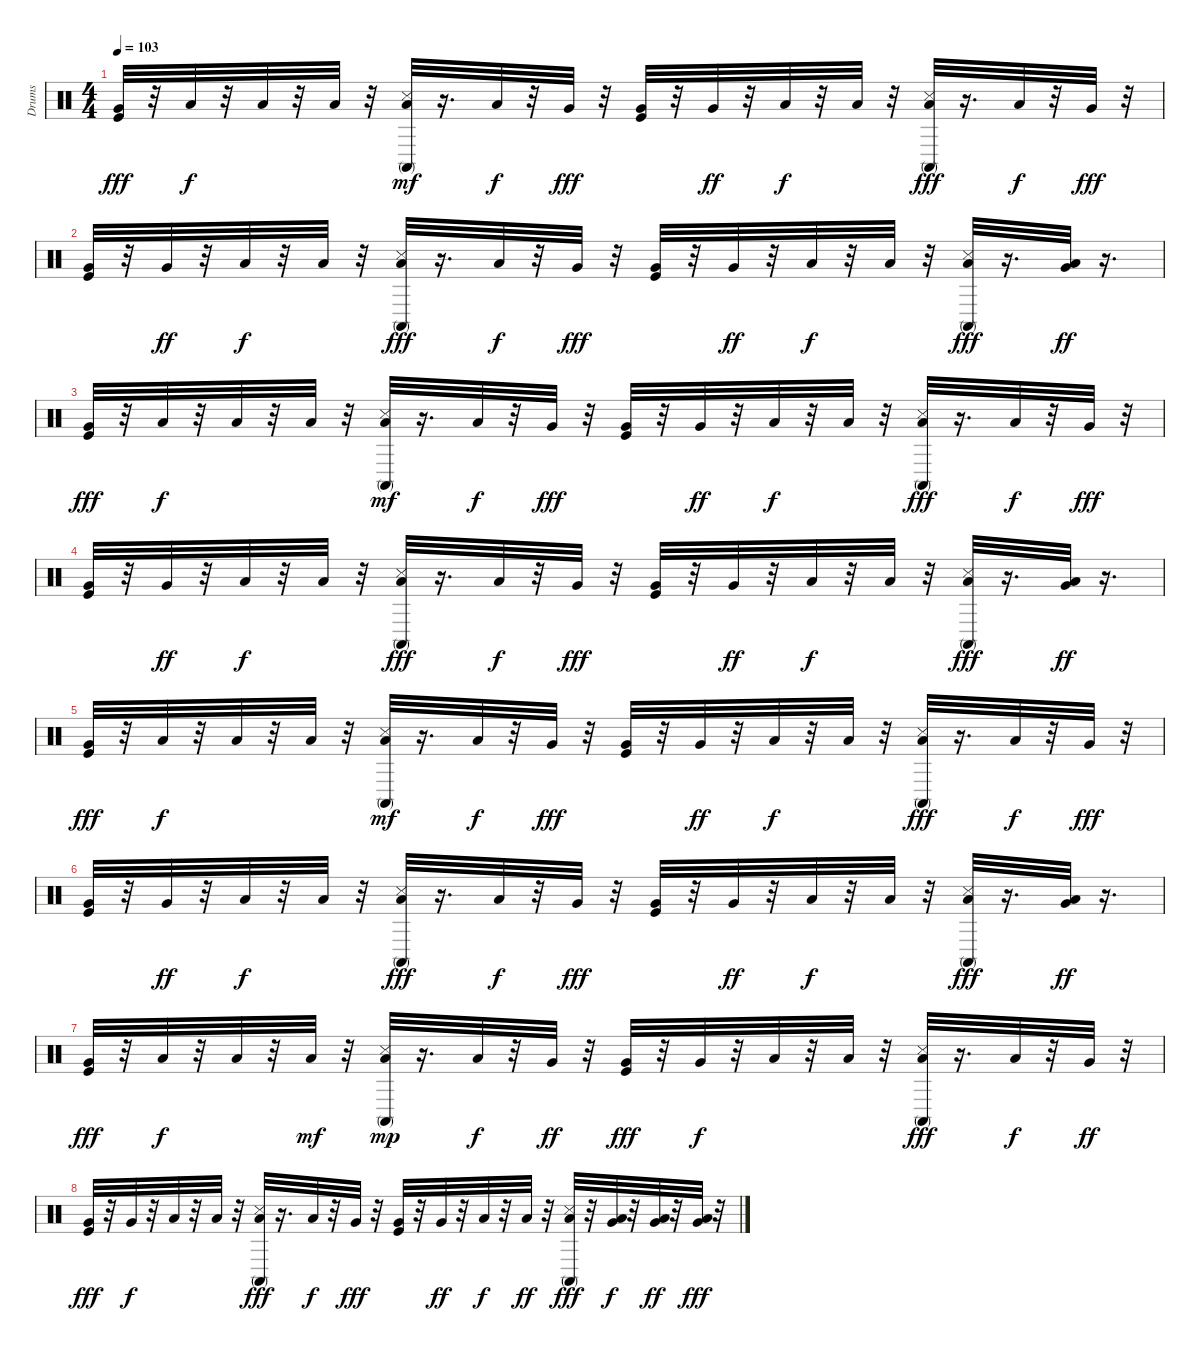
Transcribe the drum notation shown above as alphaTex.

\track ("Drums" "Drums") {instrument percussion}
\staff {score}
\articulation defaults
\ts (4 4)
\tempo 103
\clef neutral
\ks c
("Very Low Tom (hit)" "Kick (hit)").32{dy fff} r.32 "Low Floor Tom (hit)".32{dy f} r.32 "Low Floor Tom (hit)".32 r.32 "Low Floor Tom (hit)".32 r.32 ("Conga high (mute)" "Snare (side stick) 3" "Low Floor Tom (hit)").32{dy mf} r.16{d} "Low Floor Tom (hit)".32{dy f} r.32 "Very Low Tom (hit)".32{dy fff} r.32 ("Very Low Tom (hit)" "Kick (hit)").32 r.32 "Very Low Tom (hit)".32{dy ff} r.32 "Low Floor Tom (hit)".32{dy f} r.32 "Low Floor Tom (hit)".32 r.32 ("Conga high (mute)" "Low Floor Tom (hit)" "Snare (side stick) 3").32{dy fff} r.16{d} "Low Floor Tom (hit)".32{dy f} r.32 "Very Low Tom (hit)".32{dy fff} r.32 |
("Very Low Tom (hit)" "Kick (hit)").32 r.32 "Very Low Tom (hit)".32{dy ff} r.32 "Low Floor Tom (hit)".32{dy f} r.32 "Low Floor Tom (hit)".32 r.32 ("Conga high (mute)" "Low Floor Tom (hit)" "Snare (side stick) 3").32{dy fff} r.16{d} "Low Floor Tom (hit)".32{dy f} r.32 "Very Low Tom (hit)".32{dy fff} r.32 ("Very Low Tom (hit)" "Kick (hit)").32 r.32 "Very Low Tom (hit)".32{dy ff} r.32 "Low Floor Tom (hit)".32{dy f} r.32 "Low Floor Tom (hit)".32 r.32 ("Conga high (mute)" "Low Floor Tom (hit)" "Snare (side stick) 3").32{dy fff} r.16{d} ("Low Floor Tom (hit)" "Very Low Tom (hit)").32{dy ff} r.16{d} |
("Very Low Tom (hit)" "Kick (hit)").32{dy fff} r.32 "Low Floor Tom (hit)".32{dy f} r.32 "Low Floor Tom (hit)".32 r.32 "Low Floor Tom (hit)".32 r.32 ("Conga high (mute)" "Snare (side stick) 3" "Low Floor Tom (hit)").32{dy mf} r.16{d} "Low Floor Tom (hit)".32{dy f} r.32 "Very Low Tom (hit)".32{dy fff} r.32 ("Very Low Tom (hit)" "Kick (hit)").32 r.32 "Very Low Tom (hit)".32{dy ff} r.32 "Low Floor Tom (hit)".32{dy f} r.32 "Low Floor Tom (hit)".32 r.32 ("Conga high (mute)" "Low Floor Tom (hit)" "Snare (side stick) 3").32{dy fff} r.16{d} "Low Floor Tom (hit)".32{dy f} r.32 "Very Low Tom (hit)".32{dy fff} r.32 |
("Very Low Tom (hit)" "Kick (hit)").32 r.32 "Very Low Tom (hit)".32{dy ff} r.32 "Low Floor Tom (hit)".32{dy f} r.32 "Low Floor Tom (hit)".32 r.32 ("Conga high (mute)" "Low Floor Tom (hit)" "Snare (side stick) 3").32{dy fff} r.16{d} "Low Floor Tom (hit)".32{dy f} r.32 "Very Low Tom (hit)".32{dy fff} r.32 ("Very Low Tom (hit)" "Kick (hit)").32 r.32 "Very Low Tom (hit)".32{dy ff} r.32 "Low Floor Tom (hit)".32{dy f} r.32 "Low Floor Tom (hit)".32 r.32 ("Conga high (mute)" "Low Floor Tom (hit)" "Snare (side stick) 3").32{dy fff} r.16{d} ("Low Floor Tom (hit)" "Very Low Tom (hit)").32{dy ff} r.16{d} |
("Very Low Tom (hit)" "Kick (hit)").32{dy fff} r.32 "Low Floor Tom (hit)".32{dy f} r.32 "Low Floor Tom (hit)".32 r.32 "Low Floor Tom (hit)".32 r.32 ("Conga high (mute)" "Snare (side stick) 3" "Low Floor Tom (hit)").32{dy mf} r.16{d} "Low Floor Tom (hit)".32{dy f} r.32 "Very Low Tom (hit)".32{dy fff} r.32 ("Very Low Tom (hit)" "Kick (hit)").32 r.32 "Very Low Tom (hit)".32{dy ff} r.32 "Low Floor Tom (hit)".32{dy f} r.32 "Low Floor Tom (hit)".32 r.32 ("Conga high (mute)" "Low Floor Tom (hit)" "Snare (side stick) 3").32{dy fff} r.16{d} "Low Floor Tom (hit)".32{dy f} r.32 "Very Low Tom (hit)".32{dy fff} r.32 |
("Very Low Tom (hit)" "Kick (hit)").32 r.32 "Very Low Tom (hit)".32{dy ff} r.32 "Low Floor Tom (hit)".32{dy f} r.32 "Low Floor Tom (hit)".32 r.32 ("Conga high (mute)" "Low Floor Tom (hit)" "Snare (side stick) 3").32{dy fff} r.16{d} "Low Floor Tom (hit)".32{dy f} r.32 "Very Low Tom (hit)".32{dy fff} r.32 ("Very Low Tom (hit)" "Kick (hit)").32 r.32 "Very Low Tom (hit)".32{dy ff} r.32 "Low Floor Tom (hit)".32{dy f} r.32 "Low Floor Tom (hit)".32 r.32 ("Conga high (mute)" "Low Floor Tom (hit)" "Snare (side stick) 3").32{dy fff} r.16{d} ("Low Floor Tom (hit)" "Very Low Tom (hit)").32{dy ff} r.16{d} |
("Very Low Tom (hit)" "Kick (hit)").32{dy fff} r.32 "Low Floor Tom (hit)".32{dy f} r.32 "Low Floor Tom (hit)".32 r.32 "Low Floor Tom (hit)".32{dy mf} r.32 ("Conga high (mute)" "Snare (side stick) 3" "Low Floor Tom (hit)").32{dy mp} r.16{d} "Low Floor Tom (hit)".32{dy f} r.32 "Very Low Tom (hit)".32{dy ff} r.32 ("Very Low Tom (hit)" "Kick (hit)").32{dy fff} r.32 "Very Low Tom (hit)".32{dy f} r.32 "Low Floor Tom (hit)".32 r.32 "Low Floor Tom (hit)".32 r.32 ("Conga high (mute)" "Low Floor Tom (hit)" "Snare (side stick) 3").32{dy fff} r.16{d} "Low Floor Tom (hit)".32{dy f} r.32 "Very Low Tom (hit)".32{dy ff} r.32 |
("Very Low Tom (hit)" "Kick (hit)").32{dy fff} r.32 "Very Low Tom (hit)".32{dy f} r.32 "Low Floor Tom (hit)".32 r.32 "Low Floor Tom (hit)".32 r.32 ("Conga high (mute)" "Low Floor Tom (hit)" "Snare (side stick) 3").32{dy fff} r.16{d} "Low Floor Tom (hit)".32{dy f} r.32 "Very Low Tom (hit)".32{dy fff} r.32 ("Very Low Tom (hit)" "Kick (hit)").32 r.32 "Very Low Tom (hit)".32{dy ff} r.32 "Low Floor Tom (hit)".32{dy f} r.32 "Low Floor Tom (hit)".32{dy ff} r.32 ("Conga high (mute)" "Low Floor Tom (hit)" "Snare (side stick) 3").32{dy fff} r.32 ("Very Low Tom (hit)" "Low Floor Tom (hit)").32{dy f} r.32 ("Very Low Tom (hit)" "Low Floor Tom (hit)").32{dy ff} r.32 ("Very Low Tom (hit)" "Low Floor Tom (hit)").32{dy fff} r.32
